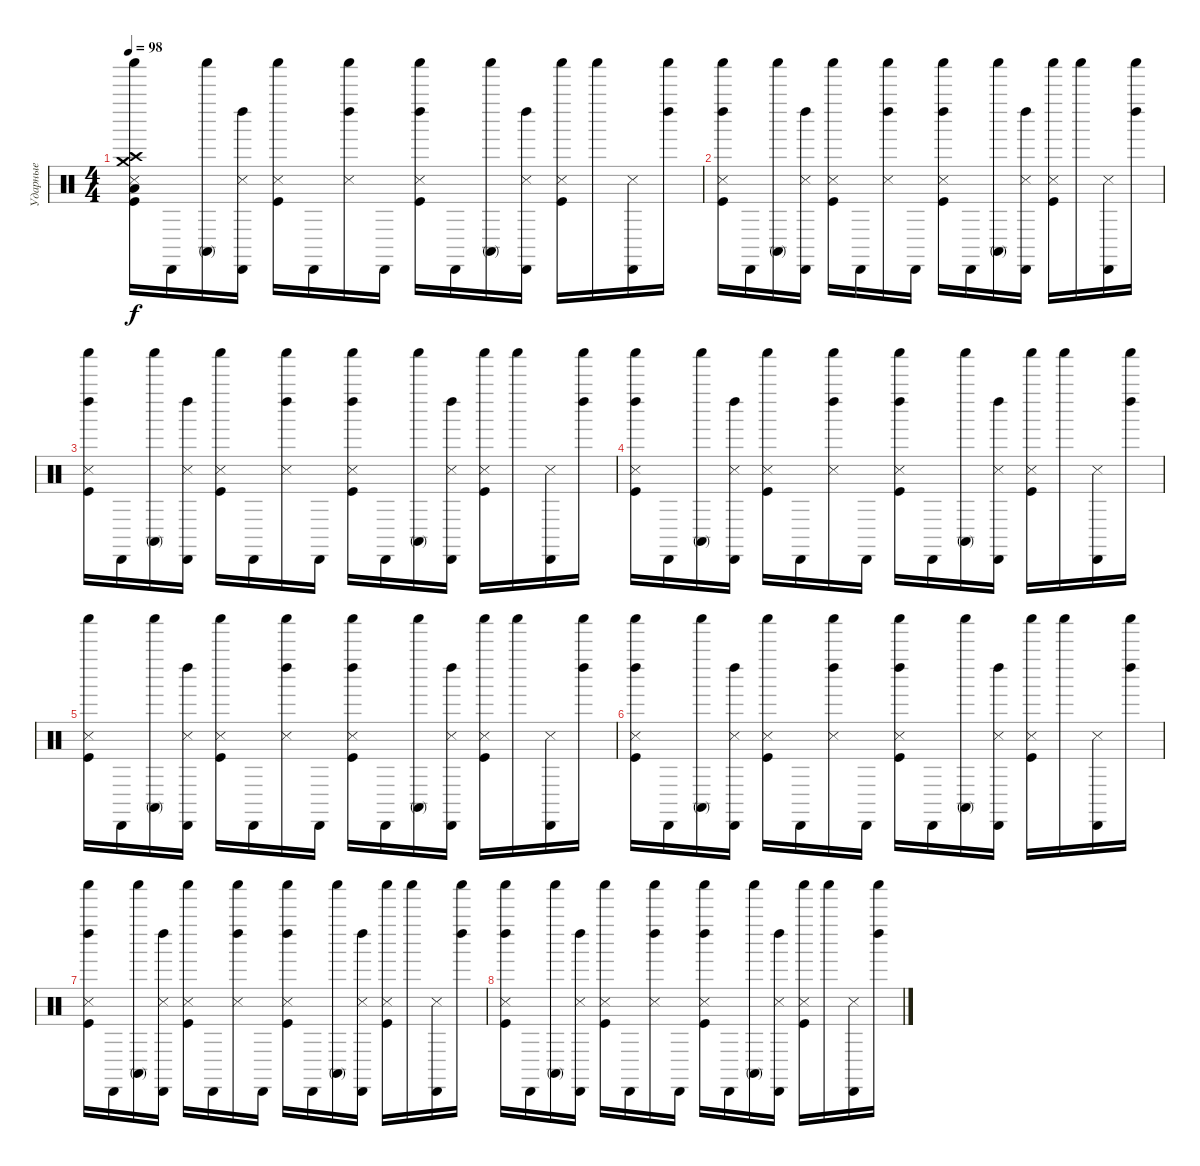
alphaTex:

\track ("Ударные" "Ударные") {instrument percussion}
\staff {score}
\articulation defaults
\ts (4 4)
\tempo 98
\clef neutral
\ks c
("Snare (side stick) 3" "Kick (hit)" "Crash medium (hit)" "Crash high (hit)" "Shaker (hit)" "Low Floor Tom (hit)").16{dy f} "Cabasa (hit)".16 ("Conga high (mute)" "Shaker (hit)").16 ("Snare (side stick) 3" "Left Maraca (hit)" "Cabasa (hit)").16 ("Kick (hit)" "Snare (side stick) 3" "Shaker (hit)").16 "Cabasa (hit)".16 ("Snare (side stick) 3" "Left Maraca (hit)" "Shaker (hit)").16 "Cabasa (hit)".16 ("Snare (side stick) 3" "Kick (hit)" "Left Maraca (hit)" "Shaker (hit)").16 "Cabasa (hit)".16 ("Conga high (mute)" "Shaker (hit)").16 ("Snare (side stick) 3" "Left Maraca (hit)" "Cabasa (hit)").16 ("Kick (hit)" "Snare (side stick) 3" "Shaker (hit)").16 "Shaker (hit)".16 ("Snare (side stick) 3" "Cabasa (hit)").16 ("Left Maraca (hit)" "Shaker (hit)").16 |
("Snare (side stick) 3" "Kick (hit)" "Left Maraca (hit)" "Shaker (hit)").16 "Cabasa (hit)".16 ("Conga high (mute)" "Shaker (hit)").16 ("Snare (side stick) 3" "Left Maraca (hit)" "Cabasa (hit)").16 ("Kick (hit)" "Snare (side stick) 3" "Shaker (hit)").16 "Cabasa (hit)".16 ("Snare (side stick) 3" "Left Maraca (hit)" "Shaker (hit)").16 "Cabasa (hit)".16 ("Snare (side stick) 3" "Kick (hit)" "Left Maraca (hit)" "Shaker (hit)").16 "Cabasa (hit)".16 ("Conga high (mute)" "Shaker (hit)").16 ("Snare (side stick) 3" "Left Maraca (hit)" "Cabasa (hit)").16 ("Kick (hit)" "Snare (side stick) 3" "Shaker (hit)").16 "Shaker (hit)".16 ("Snare (side stick) 3" "Cabasa (hit)").16 ("Left Maraca (hit)" "Shaker (hit)").16 |
("Snare (side stick) 3" "Kick (hit)" "Left Maraca (hit)" "Shaker (hit)").16 "Cabasa (hit)".16 ("Conga high (mute)" "Shaker (hit)").16 ("Snare (side stick) 3" "Left Maraca (hit)" "Cabasa (hit)").16 ("Kick (hit)" "Snare (side stick) 3" "Shaker (hit)").16 "Cabasa (hit)".16 ("Snare (side stick) 3" "Left Maraca (hit)" "Shaker (hit)").16 "Cabasa (hit)".16 ("Snare (side stick) 3" "Kick (hit)" "Left Maraca (hit)" "Shaker (hit)").16 "Cabasa (hit)".16 ("Conga high (mute)" "Shaker (hit)").16 ("Snare (side stick) 3" "Left Maraca (hit)" "Cabasa (hit)").16 ("Kick (hit)" "Snare (side stick) 3" "Shaker (hit)").16 "Shaker (hit)".16 ("Snare (side stick) 3" "Cabasa (hit)").16 ("Left Maraca (hit)" "Shaker (hit)").16 |
("Snare (side stick) 3" "Kick (hit)" "Left Maraca (hit)" "Shaker (hit)").16 "Cabasa (hit)".16 ("Conga high (mute)" "Shaker (hit)").16 ("Snare (side stick) 3" "Left Maraca (hit)" "Cabasa (hit)").16 ("Kick (hit)" "Snare (side stick) 3" "Shaker (hit)").16 "Cabasa (hit)".16 ("Snare (side stick) 3" "Left Maraca (hit)" "Shaker (hit)").16 "Cabasa (hit)".16 ("Snare (side stick) 3" "Kick (hit)" "Left Maraca (hit)" "Shaker (hit)").16 "Cabasa (hit)".16 ("Conga high (mute)" "Shaker (hit)").16 ("Snare (side stick) 3" "Left Maraca (hit)" "Cabasa (hit)").16 ("Kick (hit)" "Snare (side stick) 3" "Shaker (hit)").16 "Shaker (hit)".16 ("Snare (side stick) 3" "Cabasa (hit)").16 ("Left Maraca (hit)" "Shaker (hit)").16 |
("Snare (side stick) 3" "Kick (hit)" "Shaker (hit)").16 "Cabasa (hit)".16 ("Conga high (mute)" "Shaker (hit)").16 ("Snare (side stick) 3" "Left Maraca (hit)" "Cabasa (hit)").16 ("Kick (hit)" "Snare (side stick) 3" "Shaker (hit)").16 "Cabasa (hit)".16 ("Snare (side stick) 3" "Left Maraca (hit)" "Shaker (hit)").16 "Cabasa (hit)".16 ("Snare (side stick) 3" "Kick (hit)" "Left Maraca (hit)" "Shaker (hit)").16 "Cabasa (hit)".16 ("Conga high (mute)" "Shaker (hit)").16 ("Snare (side stick) 3" "Left Maraca (hit)" "Cabasa (hit)").16 ("Kick (hit)" "Snare (side stick) 3" "Shaker (hit)").16 "Shaker (hit)".16 ("Snare (side stick) 3" "Cabasa (hit)").16 ("Left Maraca (hit)" "Shaker (hit)").16 |
("Snare (side stick) 3" "Kick (hit)" "Left Maraca (hit)" "Shaker (hit)").16 "Cabasa (hit)".16 ("Conga high (mute)" "Shaker (hit)").16 ("Snare (side stick) 3" "Left Maraca (hit)" "Cabasa (hit)").16 ("Kick (hit)" "Snare (side stick) 3" "Shaker (hit)").16 "Cabasa (hit)".16 ("Snare (side stick) 3" "Left Maraca (hit)" "Shaker (hit)").16 "Cabasa (hit)".16 ("Snare (side stick) 3" "Kick (hit)" "Left Maraca (hit)" "Shaker (hit)").16 "Cabasa (hit)".16 ("Conga high (mute)" "Shaker (hit)").16 ("Snare (side stick) 3" "Left Maraca (hit)" "Cabasa (hit)").16 ("Kick (hit)" "Snare (side stick) 3" "Shaker (hit)").16 "Shaker (hit)".16 ("Snare (side stick) 3" "Cabasa (hit)").16 ("Left Maraca (hit)" "Shaker (hit)").16 |
("Snare (side stick) 3" "Kick (hit)" "Left Maraca (hit)" "Shaker (hit)").16 "Cabasa (hit)".16 ("Conga high (mute)" "Shaker (hit)").16 ("Snare (side stick) 3" "Left Maraca (hit)" "Cabasa (hit)").16 ("Kick (hit)" "Snare (side stick) 3" "Shaker (hit)").16 "Cabasa (hit)".16 ("Snare (side stick) 3" "Left Maraca (hit)" "Shaker (hit)").16 "Cabasa (hit)".16 ("Snare (side stick) 3" "Kick (hit)" "Left Maraca (hit)" "Shaker (hit)").16 "Cabasa (hit)".16 ("Conga high (mute)" "Shaker (hit)").16 ("Snare (side stick) 3" "Left Maraca (hit)" "Cabasa (hit)").16 ("Kick (hit)" "Snare (side stick) 3" "Shaker (hit)").16 "Shaker (hit)".16 ("Snare (side stick) 3" "Cabasa (hit)").16 ("Left Maraca (hit)" "Shaker (hit)").16 |
("Snare (side stick) 3" "Kick (hit)" "Left Maraca (hit)" "Shaker (hit)").16 "Cabasa (hit)".16 ("Conga high (mute)" "Shaker (hit)").16 ("Snare (side stick) 3" "Left Maraca (hit)" "Cabasa (hit)").16 ("Kick (hit)" "Snare (side stick) 3" "Shaker (hit)").16 "Cabasa (hit)".16 ("Snare (side stick) 3" "Left Maraca (hit)" "Shaker (hit)").16 "Cabasa (hit)".16 ("Snare (side stick) 3" "Kick (hit)" "Left Maraca (hit)" "Shaker (hit)").16 "Cabasa (hit)".16 ("Conga high (mute)" "Shaker (hit)").16 ("Snare (side stick) 3" "Left Maraca (hit)" "Cabasa (hit)").16 ("Kick (hit)" "Snare (side stick) 3" "Shaker (hit)").16 "Shaker (hit)".16 ("Snare (side stick) 3" "Cabasa (hit)").16 ("Left Maraca (hit)" "Shaker (hit)").16
